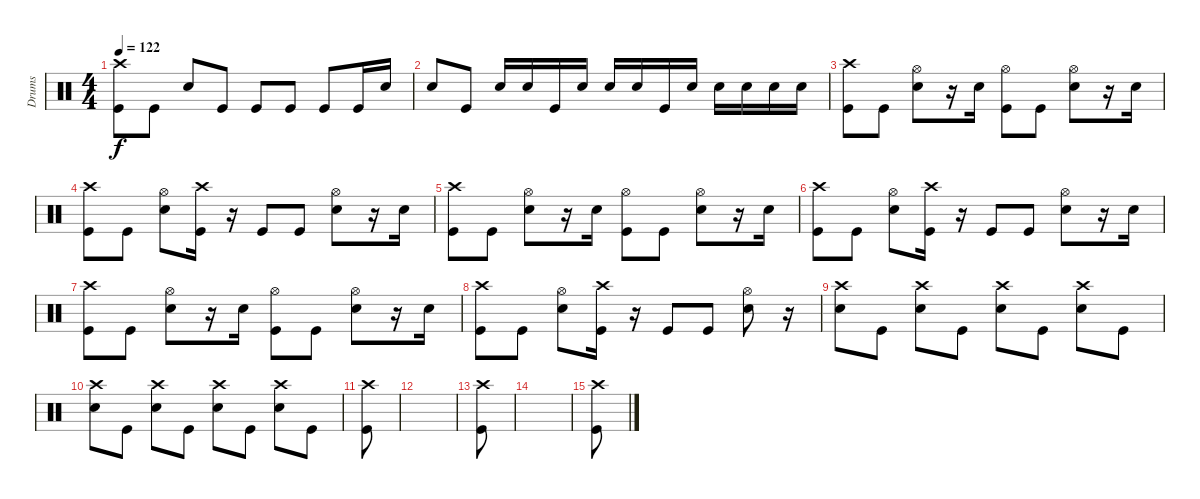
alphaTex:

\track ("Drums" "Drums") {instrument percussion}
\staff {score}
\articulation defaults
\ts (4 4)
\tempo 122
\clef neutral
\ks c
("Crash high (hit)" "Kick (hit)").8{dy f} "Kick (hit)".8 "Snare (hit) 2".8 "Kick (hit)".8 "Kick (hit)".8 "Kick (hit)".8 "Kick (hit)".8 "Kick (hit)".16 "Snare (hit) 2".16 |
"Snare (hit) 2".8 "Kick (hit)".8 "Snare (hit) 2".16 "Snare (hit) 2".16 "Kick (hit)".16 "Snare (hit) 2".16 "Snare (hit) 2".16 "Snare (hit) 2".16 "Kick (hit)".16 "Snare (hit) 2".16 "Snare (hit) 2".16 "Snare (hit) 2".16 "Snare (hit) 2".16 "Snare (hit) 2".16 |
("Crash high (hit)" "Kick (hit)").8 "Kick (hit)".8 ("Hi-Hat (open)" "Snare (hit) 2").8 r.16 "Snare (hit) 2".16 ("Hi-Hat (open)" "Kick (hit)").8 "Kick (hit)".8 ("Hi-Hat (open)" "Snare (hit) 2").8 r.16 "Snare (hit) 2".16 |
("Crash high (hit)" "Kick (hit)").8 "Kick (hit)".8 ("Hi-Hat (open)" "Snare (hit) 2").8 ("Crash high (hit)" "Kick (hit)").16 r.16 "Kick (hit)".8 "Kick (hit)".8 ("Hi-Hat (open)" "Snare (hit) 2").8 r.16 "Snare (hit) 2".16 |
("Crash high (hit)" "Kick (hit)").8 "Kick (hit)".8 ("Hi-Hat (open)" "Snare (hit) 2").8 r.16 "Snare (hit) 2".16 ("Hi-Hat (open)" "Kick (hit)").8 "Kick (hit)".8 ("Hi-Hat (open)" "Snare (hit) 2").8 r.16 "Snare (hit) 2".16 |
("Crash high (hit)" "Kick (hit)").8 "Kick (hit)".8 ("Hi-Hat (open)" "Snare (hit) 2").8 ("Crash high (hit)" "Kick (hit)").16 r.16 "Kick (hit)".8 "Kick (hit)".8 ("Hi-Hat (open)" "Snare (hit) 2").8 r.16 "Snare (hit) 2".16 |
("Crash high (hit)" "Kick (hit)").8 "Kick (hit)".8 ("Hi-Hat (open)" "Snare (hit) 2").8 r.16 "Snare (hit) 2".16 ("Hi-Hat (open)" "Kick (hit)").8 "Kick (hit)".8 ("Hi-Hat (open)" "Snare (hit) 2").8 r.16 "Snare (hit) 2".16 |
("Crash high (hit)" "Kick (hit)").8 "Kick (hit)".8 ("Hi-Hat (open)" "Snare (hit) 2").8 ("Crash high (hit)" "Kick (hit)").16 r.16 "Kick (hit)".8 "Kick (hit)".8 ("Hi-Hat (open)" "Snare (hit) 2").8 r.16 |
("Crash high (hit)" "Snare (hit) 2").8 "Kick (hit)".8 ("Crash high (hit)" "Snare (hit) 2").8 "Kick (hit)".8 ("Crash high (hit)" "Snare (hit) 2").8 "Kick (hit)".8 ("Crash high (hit)" "Snare (hit) 2").8 "Kick (hit)".8 |
("Crash high (hit)" "Snare (hit) 2").8 "Kick (hit)".8 ("Crash high (hit)" "Snare (hit) 2").8 "Kick (hit)".8 ("Crash high (hit)" "Snare (hit) 2").8 "Kick (hit)".8 ("Crash high (hit)" "Snare (hit) 2").8 "Kick (hit)".8 |
("Crash high (hit)" "Kick (hit)").8 |
|
("Crash high (hit)" "Kick (hit)").8 |
|
("Crash high (hit)" "Kick (hit)").8
